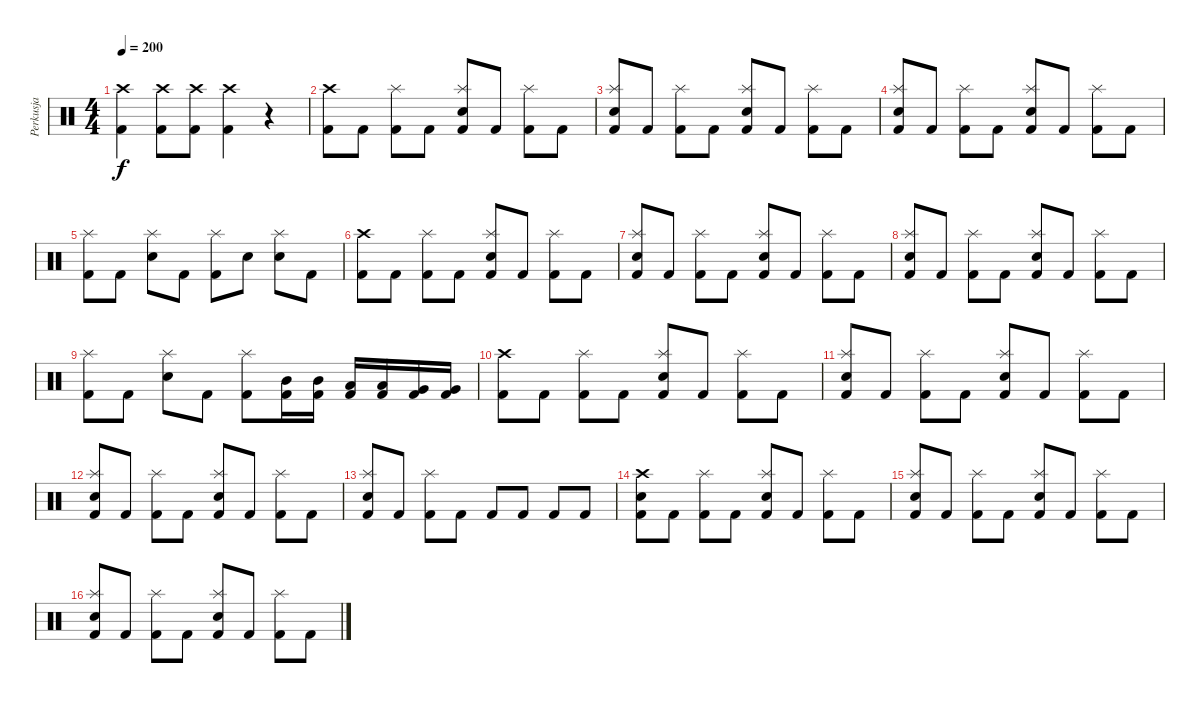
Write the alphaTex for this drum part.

\track ("Perkusja" "Perkusja") {instrument percussion}
\staff {score}
\articulation defaults
\ts (4 4)
\tempo 200
\clef neutral
\ks c
("Crash high (hit)" "Kick (hit) 2").4{dy f} ("Crash high (hit)" "Kick (hit) 2").8 ("Crash high (hit)" "Kick (hit) 2").8 ("Crash high (hit)" "Kick (hit) 2").4 r.4 |
("Crash high (hit)" "Kick (hit) 2").8 "Kick (hit) 2".8 ("Splash (hit)" "Kick (hit) 2").8 "Kick (hit) 2".8 ("Splash (hit)" "Snare (hit) 2" "Kick (hit) 2").8 "Kick (hit) 2".8 ("Splash (hit)" "Kick (hit) 2").8 "Kick (hit) 2".8 |
("Splash (hit)" "Snare (hit) 2" "Kick (hit) 2").8 "Kick (hit) 2".8 ("Splash (hit)" "Kick (hit) 2").8 "Kick (hit) 2".8 ("Splash (hit)" "Snare (hit) 2" "Kick (hit) 2").8 "Kick (hit) 2".8 ("Splash (hit)" "Kick (hit) 2").8 "Kick (hit) 2".8 |
("Splash (hit)" "Snare (hit) 2" "Kick (hit) 2").8 "Kick (hit) 2".8 ("Splash (hit)" "Kick (hit) 2").8 "Kick (hit) 2".8 ("Splash (hit)" "Snare (hit) 2" "Kick (hit) 2").8 "Kick (hit) 2".8 ("Splash (hit)" "Kick (hit) 2").8 "Kick (hit) 2".8 |
("Splash (hit)" "Kick (hit) 2").8 "Kick (hit) 2".8 ("Splash (hit)" "Snare (hit) 2").8 "Kick (hit) 2".8 ("Splash (hit)" "Kick (hit) 2").8 "Snare (hit) 2".8 ("Splash (hit)" "Snare (hit) 2").8 "Kick (hit) 2".8 |
("Crash high (hit)" "Kick (hit) 2").8 "Kick (hit) 2".8 ("Splash (hit)" "Kick (hit) 2").8 "Kick (hit) 2".8 ("Splash (hit)" "Snare (hit) 2" "Kick (hit) 2").8 "Kick (hit) 2".8 ("Splash (hit)" "Kick (hit) 2").8 "Kick (hit) 2".8 |
("Splash (hit)" "Snare (hit) 2" "Kick (hit) 2").8 "Kick (hit) 2".8 ("Splash (hit)" "Kick (hit) 2").8 "Kick (hit) 2".8 ("Splash (hit)" "Snare (hit) 2" "Kick (hit) 2").8 "Kick (hit) 2".8 ("Splash (hit)" "Kick (hit) 2").8 "Kick (hit) 2".8 |
("Splash (hit)" "Snare (hit) 2" "Kick (hit) 2").8 "Kick (hit) 2".8 ("Splash (hit)" "Kick (hit) 2").8 "Kick (hit) 2".8 ("Splash (hit)" "Snare (hit) 2" "Kick (hit) 2").8 "Kick (hit) 2".8 ("Splash (hit)" "Kick (hit) 2").8 "Kick (hit) 2".8 |
("Splash (hit)" "Kick (hit) 2").8 "Kick (hit) 2".8 ("Splash (hit)" "Snare (hit) 2").8 "Kick (hit) 2".8 ("Splash (hit)" "Kick (hit) 2").8 ("Mid Tom (hit)" "Kick (hit) 2").16 ("Mid Tom (hit)" "Kick (hit) 2").16 ("Low Tom (hit)" "Kick (hit) 2").16 ("Low Tom (hit)" "Kick (hit) 2").16 ("Very Low Tom (hit)" "Kick (hit) 2").16 ("Very Low Tom (hit)" "Kick (hit) 2").16 |
("Crash high (hit)" "Kick (hit) 2").8 "Kick (hit) 2".8 ("Splash (hit)" "Kick (hit) 2").8 "Kick (hit) 2".8 ("Splash (hit)" "Snare (hit) 2" "Kick (hit) 2").8 "Kick (hit) 2".8 ("Splash (hit)" "Kick (hit) 2").8 "Kick (hit) 2".8 |
("Splash (hit)" "Snare (hit) 2" "Kick (hit) 2").8 "Kick (hit) 2".8 ("Splash (hit)" "Kick (hit) 2").8 "Kick (hit) 2".8 ("Splash (hit)" "Snare (hit) 2" "Kick (hit) 2").8 "Kick (hit) 2".8 ("Splash (hit)" "Kick (hit) 2").8 "Kick (hit) 2".8 |
("Splash (hit)" "Snare (hit) 2" "Kick (hit) 2").8 "Kick (hit) 2".8 ("Splash (hit)" "Kick (hit) 2").8 "Kick (hit) 2".8 ("Splash (hit)" "Snare (hit) 2" "Kick (hit) 2").8 "Kick (hit) 2".8 ("Splash (hit)" "Kick (hit) 2").8 "Kick (hit) 2".8 |
("Splash (hit)" "Snare (hit) 2" "Kick (hit) 2").8 "Kick (hit) 2".8 ("Splash (hit)" "Kick (hit) 2").8 "Kick (hit) 2".8 "Kick (hit) 2".8 "Kick (hit) 2".8 "Kick (hit) 2".8 "Kick (hit) 2".8 |
("Crash high (hit)" "Snare (hit) 2" "Kick (hit) 2").8 "Kick (hit) 2".8 ("Splash (hit)" "Kick (hit) 2").8 "Kick (hit) 2".8 ("Splash (hit)" "Snare (hit) 2" "Kick (hit) 2").8 "Kick (hit) 2".8 ("Splash (hit)" "Kick (hit) 2").8 "Kick (hit) 2".8 |
("Splash (hit)" "Snare (hit) 2" "Kick (hit) 2").8 "Kick (hit) 2".8 ("Splash (hit)" "Kick (hit) 2").8 "Kick (hit) 2".8 ("Splash (hit)" "Snare (hit) 2" "Kick (hit) 2").8 "Kick (hit) 2".8 ("Splash (hit)" "Kick (hit) 2").8 "Kick (hit) 2".8 |
("Splash (hit)" "Snare (hit) 2" "Kick (hit) 2").8 "Kick (hit) 2".8 ("Splash (hit)" "Kick (hit) 2").8 "Kick (hit) 2".8 ("Splash (hit)" "Snare (hit) 2" "Kick (hit) 2").8 "Kick (hit) 2".8 ("Splash (hit)" "Kick (hit) 2").8 "Kick (hit) 2".8
